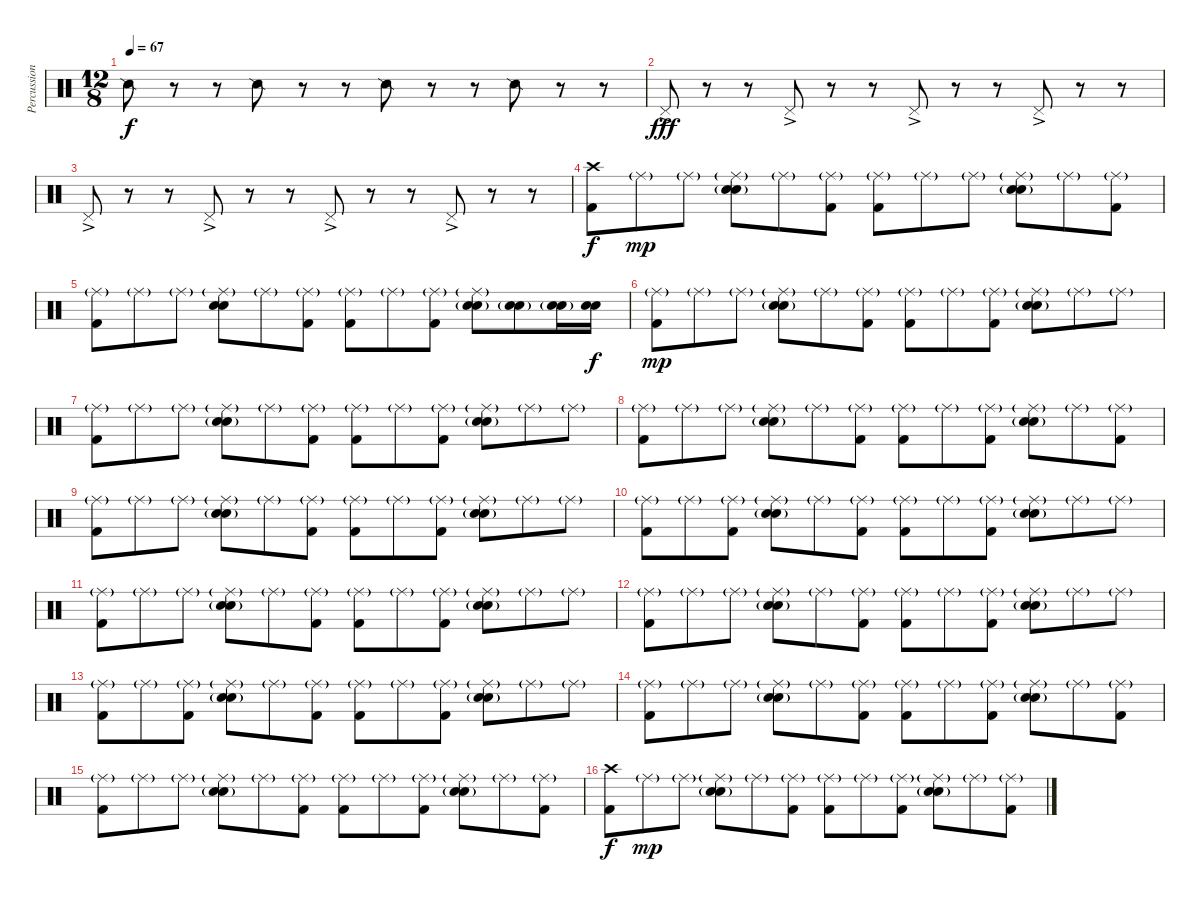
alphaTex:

\track ("Percussion" "Percussion") {instrument percussion}
\staff {score}
\articulation defaults
\ts (12 8)
\tempo 67
\clef neutral
\ks c "Snare (side stick) 2".8{dy f}
r.8 r.8 "Snare (side stick) 2".8 r.8 r.8 "Snare (side stick) 2".8 r.8 r.8 "Snare (side stick) 2".8 r.8 r.8 |
"Pedal Hi-Hat (hit)"{ac}.8{dy fff} r.8 r.8 "Pedal Hi-Hat (hit)"{ac}.8 r.8 r.8 "Pedal Hi-Hat (hit)"{ac}.8 r.8 r.8 "Pedal Hi-Hat (hit)"{ac}.8 r.8 r.8 |
"Pedal Hi-Hat (hit)"{ac}.8 r.8 r.8 "Pedal Hi-Hat (hit)"{ac}.8 r.8 r.8 "Pedal Hi-Hat (hit)"{ac}.8 r.8 r.8 "Pedal Hi-Hat (hit)"{ac}.8 r.8 r.8 |
("Crash high (hit)" "Kick (hit) 2").8{dy f} "Ride (middle)"{g}.8{dy mp} "Ride (middle)"{g}.8 ("Ride (middle)"{g} "Electric Snare (hit)" "Snare (hit) 2"{g}).8 "Ride (middle)"{g}.8 ("Ride (middle)"{g} "Kick (hit) 2").8 ("Ride (middle)"{g} "Kick (hit) 2").8 "Ride (middle)"{g}.8 "Ride (middle)"{g}.8 ("Ride (middle)"{g} "Electric Snare (hit)" "Snare (hit) 2"{g}).8 "Ride (middle)"{g}.8 ("Ride (middle)"{g} "Kick (hit) 2").8 |
("Ride (middle)"{g} "Kick (hit) 2").8 "Ride (middle)"{g}.8 "Ride (middle)"{g}.8 ("Ride (middle)"{g} "Electric Snare (hit)" "Snare (hit) 2").8 "Ride (middle)"{g}.8 ("Ride (middle)"{g} "Kick (hit) 2").8 ("Ride (middle)"{g} "Kick (hit) 2").8 "Ride (middle)"{g}.8 ("Ride (middle)"{g} "Kick (hit) 2").8 ("Ride (middle)"{g} "Electric Snare (hit)" "Snare (hit) 2"{g}).8 ("Electric Snare (hit)"{g} "Snare (hit) 2"{g}).8 ("Electric Snare (hit)" "Snare (hit) 2"{g}).16 ("Electric Snare (hit)" "Snare (hit) 2").16{dy f} |
("Ride (middle)"{g} "Kick (hit) 2").8{dy mp} "Ride (middle)"{g}.8 "Ride (middle)"{g}.8 ("Ride (middle)"{g} "Electric Snare (hit)" "Snare (hit) 2"{g}).8 "Ride (middle)"{g}.8 ("Ride (middle)"{g} "Kick (hit) 2").8 ("Ride (middle)"{g} "Kick (hit) 2").8 "Ride (middle)"{g}.8 ("Ride (middle)"{g} "Kick (hit) 2").8 ("Ride (middle)"{g} "Electric Snare (hit)" "Snare (hit) 2"{g}).8 "Ride (middle)"{g}.8 "Ride (middle)"{g}.8 |
("Ride (middle)"{g} "Kick (hit) 2").8 "Ride (middle)"{g}.8 "Ride (middle)"{g}.8 ("Ride (middle)"{g} "Electric Snare (hit)" "Snare (hit) 2"{g}).8 "Ride (middle)"{g}.8 ("Ride (middle)"{g} "Kick (hit) 2").8 ("Ride (middle)"{g} "Kick (hit) 2").8 "Ride (middle)"{g}.8 ("Ride (middle)"{g} "Kick (hit) 2").8 ("Ride (middle)"{g} "Electric Snare (hit)" "Snare (hit) 2"{g}).8 "Ride (middle)"{g}.8 "Ride (middle)"{g}.8 |
("Ride (middle)"{g} "Kick (hit) 2").8 "Ride (middle)"{g}.8 "Ride (middle)"{g}.8 ("Ride (middle)"{g} "Electric Snare (hit)" "Snare (hit) 2"{g}).8 "Ride (middle)"{g}.8 ("Ride (middle)"{g} "Kick (hit) 2").8 ("Ride (middle)"{g} "Kick (hit) 2").8 "Ride (middle)"{g}.8 ("Ride (middle)"{g} "Kick (hit) 2").8 ("Ride (middle)"{g} "Electric Snare (hit)" "Snare (hit) 2"{g}).8 "Ride (middle)"{g}.8 ("Ride (middle)"{g} "Kick (hit) 2").8 |
("Ride (middle)"{g} "Kick (hit) 2").8 "Ride (middle)"{g}.8 "Ride (middle)"{g}.8 ("Ride (middle)"{g} "Electric Snare (hit)" "Snare (hit) 2"{g}).8 "Ride (middle)"{g}.8 ("Ride (middle)"{g} "Kick (hit) 2").8 ("Ride (middle)"{g} "Kick (hit) 2").8 "Ride (middle)"{g}.8 ("Ride (middle)"{g} "Kick (hit) 2").8 ("Ride (middle)"{g} "Electric Snare (hit)" "Snare (hit) 2"{g}).8 "Ride (middle)"{g}.8 "Ride (middle)"{g}.8 |
("Ride (middle)"{g} "Kick (hit) 2").8 "Ride (middle)"{g}.8 ("Ride (middle)"{g} "Kick (hit) 2").8 ("Ride (middle)"{g} "Electric Snare (hit)" "Snare (hit) 2"{g}).8 "Ride (middle)"{g}.8 ("Ride (middle)"{g} "Kick (hit) 2").8 ("Ride (middle)"{g} "Kick (hit) 2").8 "Ride (middle)"{g}.8 ("Ride (middle)"{g} "Kick (hit) 2").8 ("Ride (middle)"{g} "Electric Snare (hit)" "Snare (hit) 2"{g}).8 "Ride (middle)"{g}.8 "Ride (middle)"{g}.8 |
("Ride (middle)"{g} "Kick (hit) 2").8 "Ride (middle)"{g}.8 "Ride (middle)"{g}.8 ("Ride (middle)"{g} "Electric Snare (hit)" "Snare (hit) 2"{g}).8 "Ride (middle)"{g}.8 ("Ride (middle)"{g} "Kick (hit) 2").8 ("Ride (middle)"{g} "Kick (hit) 2").8 "Ride (middle)"{g}.8 ("Ride (middle)"{g} "Kick (hit) 2").8 ("Ride (middle)"{g} "Electric Snare (hit)" "Snare (hit) 2"{g}).8 "Ride (middle)"{g}.8 "Ride (middle)"{g}.8 |
("Ride (middle)"{g} "Kick (hit) 2").8 "Ride (middle)"{g}.8 "Ride (middle)"{g}.8 ("Ride (middle)"{g} "Electric Snare (hit)" "Snare (hit) 2"{g}).8 "Ride (middle)"{g}.8 ("Ride (middle)"{g} "Kick (hit) 2").8 ("Ride (middle)"{g} "Kick (hit) 2").8 "Ride (middle)"{g}.8 ("Ride (middle)"{g} "Kick (hit) 2").8 ("Ride (middle)"{g} "Electric Snare (hit)" "Snare (hit) 2"{g}).8 "Ride (middle)"{g}.8 "Ride (middle)"{g}.8 |
("Ride (middle)"{g} "Kick (hit) 2").8 "Ride (middle)"{g}.8 ("Ride (middle)"{g} "Kick (hit) 2").8 ("Ride (middle)"{g} "Electric Snare (hit)" "Snare (hit) 2"{g}).8 "Ride (middle)"{g}.8 ("Ride (middle)"{g} "Kick (hit) 2").8 ("Ride (middle)"{g} "Kick (hit) 2").8 "Ride (middle)"{g}.8 ("Ride (middle)"{g} "Kick (hit) 2").8 ("Ride (middle)"{g} "Electric Snare (hit)" "Snare (hit) 2"{g}).8 "Ride (middle)"{g}.8 "Ride (middle)"{g}.8 |
("Ride (middle)"{g} "Kick (hit) 2").8 "Ride (middle)"{g}.8 "Ride (middle)"{g}.8 ("Ride (middle)"{g} "Electric Snare (hit)" "Snare (hit) 2"{g}).8 "Ride (middle)"{g}.8 ("Ride (middle)"{g} "Kick (hit) 2").8 ("Ride (middle)"{g} "Kick (hit) 2").8 "Ride (middle)"{g}.8 ("Ride (middle)"{g} "Kick (hit) 2").8 ("Ride (middle)"{g} "Electric Snare (hit)" "Snare (hit) 2"{g}).8 "Ride (middle)"{g}.8 ("Ride (middle)"{g} "Kick (hit) 2").8 |
("Ride (middle)"{g} "Kick (hit) 2").8 "Ride (middle)"{g}.8 "Ride (middle)"{g}.8 ("Ride (middle)"{g} "Electric Snare (hit)" "Snare (hit) 2"{g}).8 "Ride (middle)"{g}.8 ("Ride (middle)"{g} "Kick (hit) 2").8 ("Ride (middle)"{g} "Kick (hit) 2").8 "Ride (middle)"{g}.8 ("Ride (middle)"{g} "Kick (hit) 2").8 ("Ride (middle)"{g} "Electric Snare (hit)" "Snare (hit) 2"{g}).8 "Ride (middle)"{g}.8 ("Ride (middle)"{g} "Kick (hit) 2").8 |
("Crash high (hit)" "Kick (hit) 2").8{dy f} "Ride (middle)"{g}.8{dy mp} "Ride (middle)"{g}.8 ("Ride (middle)"{g} "Electric Snare (hit)" "Snare (hit) 2"{g}).8 "Ride (middle)"{g}.8 ("Ride (middle)"{g} "Kick (hit) 2").8 ("Ride (middle)"{g} "Kick (hit) 2").8 "Ride (middle)"{g}.8 ("Ride (middle)"{g} "Kick (hit) 2").8 ("Ride (middle)"{g} "Electric Snare (hit)" "Snare (hit) 2"{g}).8 "Ride (middle)"{g}.8 ("Ride (middle)"{g} "Kick (hit) 2").8
